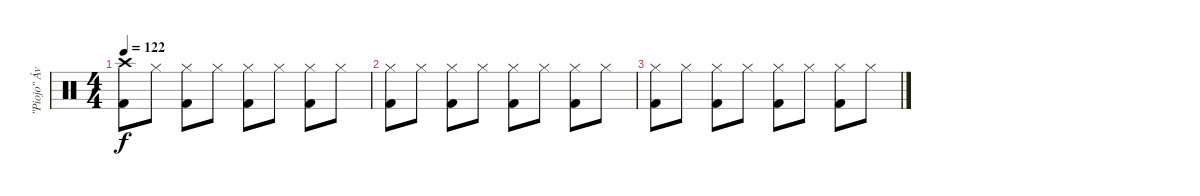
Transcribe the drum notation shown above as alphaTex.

\track ("\"Piojo\" Ávalos" "\"Piojo\" Áv") {instrument percussion}
\staff {score}
\articulation defaults
\ts (4 4)
\tempo 122
\clef neutral
\ks c
("Kick (hit) 2" "Crash high (hit)").8{dy f} "Hi-Hat (closed)".8 ("Kick (hit) 2" "Hi-Hat (closed)").8 "Hi-Hat (closed)".8 ("Kick (hit) 2" "Hi-Hat (closed)").8 "Hi-Hat (closed)".8 ("Kick (hit) 2" "Hi-Hat (closed)").8 "Hi-Hat (closed)".8 |
("Kick (hit) 2" "Hi-Hat (closed)").8 "Hi-Hat (closed)".8 ("Kick (hit) 2" "Hi-Hat (closed)").8 "Hi-Hat (closed)".8 ("Kick (hit) 2" "Hi-Hat (closed)").8 "Hi-Hat (closed)".8 ("Kick (hit) 2" "Hi-Hat (closed)").8 "Hi-Hat (closed)".8 |
("Kick (hit) 2" "Hi-Hat (closed)").8 "Hi-Hat (closed)".8 ("Kick (hit) 2" "Hi-Hat (closed)").8 "Hi-Hat (closed)".8 ("Kick (hit) 2" "Hi-Hat (closed)").8 "Hi-Hat (closed)".8 ("Kick (hit) 2" "Hi-Hat (closed)").8 "Hi-Hat (closed)".8
